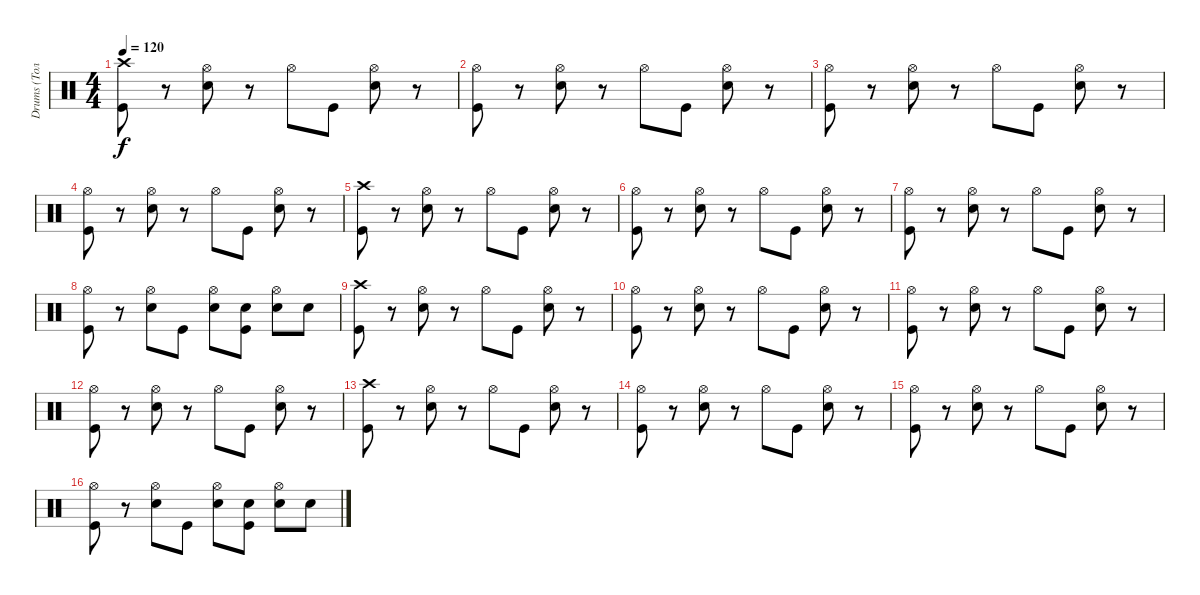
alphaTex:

\track ("Drums (Толян)" "Drums (Тол") {instrument percussion}
\staff {score}
\articulation defaults
\ts (4 4)
\tempo 120
\clef neutral
\ks c
("Crash high (hit)" "Kick (hit)").8{dy f} r.8 ("Hi-Hat (open)" "Electric Snare (hit)").8 r.8 "Hi-Hat (open)".8 "Kick (hit)".8 ("Hi-Hat (open)" "Electric Snare (hit)").8 r.8 |
("Hi-Hat (open)" "Kick (hit)").8 r.8 ("Hi-Hat (open)" "Electric Snare (hit)").8 r.8 "Hi-Hat (open)".8 "Kick (hit)".8 ("Hi-Hat (open)" "Electric Snare (hit)").8 r.8 |
("Hi-Hat (open)" "Kick (hit)").8 r.8 ("Hi-Hat (open)" "Electric Snare (hit)").8 r.8 "Hi-Hat (open)".8 "Kick (hit)".8 ("Hi-Hat (open)" "Electric Snare (hit)").8 r.8 |
("Hi-Hat (open)" "Kick (hit)").8 r.8 ("Hi-Hat (open)" "Electric Snare (hit)").8 r.8 "Hi-Hat (open)".8 "Kick (hit)".8 ("Hi-Hat (open)" "Electric Snare (hit)").8 r.8 |
("Crash high (hit)" "Kick (hit)").8 r.8 ("Hi-Hat (open)" "Electric Snare (hit)").8 r.8 "Hi-Hat (open)".8 "Kick (hit)".8 ("Hi-Hat (open)" "Electric Snare (hit)").8 r.8 |
("Hi-Hat (open)" "Kick (hit)").8 r.8 ("Hi-Hat (open)" "Electric Snare (hit)").8 r.8 "Hi-Hat (open)".8 "Kick (hit)".8 ("Hi-Hat (open)" "Electric Snare (hit)").8 r.8 |
("Hi-Hat (open)" "Kick (hit)").8 r.8 ("Hi-Hat (open)" "Electric Snare (hit)").8 r.8 "Hi-Hat (open)".8 "Kick (hit)".8 ("Hi-Hat (open)" "Electric Snare (hit)").8 r.8 |
("Hi-Hat (open)" "Kick (hit)").8 r.8 ("Hi-Hat (open)" "Electric Snare (hit)").8 "Kick (hit)".8 ("Hi-Hat (open)" "Electric Snare (hit)").8 ("Electric Snare (hit)" "Kick (hit)").8 ("Hi-Hat (open)" "Electric Snare (hit)").8 "Electric Snare (hit)".8 |
("Crash high (hit)" "Kick (hit)").8 r.8 ("Hi-Hat (open)" "Electric Snare (hit)").8 r.8 "Hi-Hat (open)".8 "Kick (hit)".8 ("Hi-Hat (open)" "Electric Snare (hit)").8 r.8 |
("Hi-Hat (open)" "Kick (hit)").8 r.8 ("Hi-Hat (open)" "Electric Snare (hit)").8 r.8 "Hi-Hat (open)".8 "Kick (hit)".8 ("Hi-Hat (open)" "Electric Snare (hit)").8 r.8 |
("Hi-Hat (open)" "Kick (hit)").8 r.8 ("Hi-Hat (open)" "Electric Snare (hit)").8 r.8 "Hi-Hat (open)".8 "Kick (hit)".8 ("Hi-Hat (open)" "Electric Snare (hit)").8 r.8 |
("Hi-Hat (open)" "Kick (hit)").8 r.8 ("Hi-Hat (open)" "Electric Snare (hit)").8 r.8 "Hi-Hat (open)".8 "Kick (hit)".8 ("Hi-Hat (open)" "Electric Snare (hit)").8 r.8 |
("Crash high (hit)" "Kick (hit)").8 r.8 ("Hi-Hat (open)" "Electric Snare (hit)").8 r.8 "Hi-Hat (open)".8 "Kick (hit)".8 ("Hi-Hat (open)" "Electric Snare (hit)").8 r.8 |
("Hi-Hat (open)" "Kick (hit)").8 r.8 ("Hi-Hat (open)" "Electric Snare (hit)").8 r.8 "Hi-Hat (open)".8 "Kick (hit)".8 ("Hi-Hat (open)" "Electric Snare (hit)").8 r.8 |
("Hi-Hat (open)" "Kick (hit)").8 r.8 ("Hi-Hat (open)" "Electric Snare (hit)").8 r.8 "Hi-Hat (open)".8 "Kick (hit)".8 ("Hi-Hat (open)" "Electric Snare (hit)").8 r.8 |
("Hi-Hat (open)" "Kick (hit)").8 r.8 ("Hi-Hat (open)" "Electric Snare (hit)").8 "Kick (hit)".8 ("Hi-Hat (open)" "Electric Snare (hit)").8 ("Electric Snare (hit)" "Kick (hit)").8 ("Hi-Hat (open)" "Electric Snare (hit)").8 "Electric Snare (hit)".8
